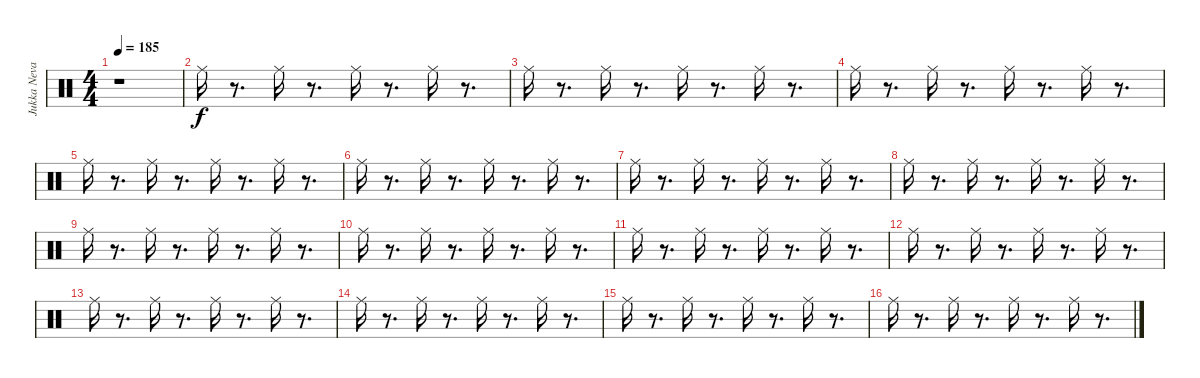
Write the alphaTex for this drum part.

\track ("Jukka Nevalinen" "Jukka Neva") {instrument percussion}
\staff {score}
\articulation defaults
\ts (4 4)
\tempo 185
\clef neutral
\ks c
r.1{dy f} |
"Ride (middle)".16 r.8{d} "Ride (middle)".16 r.8{d} "Ride (middle)".16 r.8{d} "Ride (middle)".16 r.8{d} |
"Ride (middle)".16 r.8{d} "Ride (middle)".16 r.8{d} "Ride (middle)".16 r.8{d} "Ride (middle)".16 r.8{d} |
"Ride (middle)".16 r.8{d} "Ride (middle)".16 r.8{d} "Ride (middle)".16 r.8{d} "Ride (middle)".16 r.8{d} |
"Ride (middle)".16 r.8{d} "Ride (middle)".16 r.8{d} "Ride (middle)".16 r.8{d} "Ride (middle)".16 r.8{d} |
"Ride (middle)".16 r.8{d} "Ride (middle)".16 r.8{d} "Ride (middle)".16 r.8{d} "Ride (middle)".16 r.8{d} |
"Ride (middle)".16 r.8{d} "Ride (middle)".16 r.8{d} "Ride (middle)".16 r.8{d} "Ride (middle)".16 r.8{d} |
"Ride (middle)".16 r.8{d} "Ride (middle)".16 r.8{d} "Ride (middle)".16 r.8{d} "Ride (middle)".16 r.8{d} |
"Ride (middle)".16 r.8{d} "Ride (middle)".16 r.8{d} "Ride (middle)".16 r.8{d} "Ride (middle)".16 r.8{d} |
"Ride (middle)".16 r.8{d} "Ride (middle)".16 r.8{d} "Ride (middle)".16 r.8{d} "Ride (middle)".16 r.8{d} |
"Ride (middle)".16 r.8{d} "Ride (middle)".16 r.8{d} "Ride (middle)".16 r.8{d} "Ride (middle)".16 r.8{d} |
"Ride (middle)".16 r.8{d} "Ride (middle)".16 r.8{d} "Ride (middle)".16 r.8{d} "Ride (middle)".16 r.8{d} |
"Ride (middle)".16 r.8{d} "Ride (middle)".16 r.8{d} "Ride (middle)".16 r.8{d} "Ride (middle)".16 r.8{d} |
"Ride (middle)".16 r.8{d} "Ride (middle)".16 r.8{d} "Ride (middle)".16 r.8{d} "Ride (middle)".16 r.8{d} |
"Ride (middle)".16 r.8{d} "Ride (middle)".16 r.8{d} "Ride (middle)".16 r.8{d} "Ride (middle)".16 r.8{d} |
"Ride (middle)".16 r.8{d} "Ride (middle)".16 r.8{d} "Ride (middle)".16 r.8{d} "Ride (middle)".16 r.8{d}
